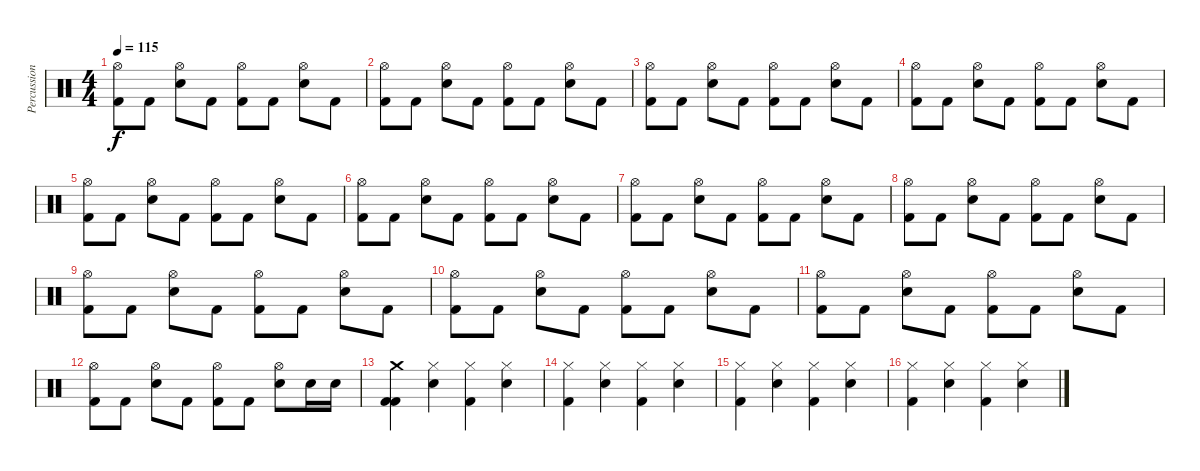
\track ("Percussions" "Percussion") {instrument percussion}
\staff {score}
\articulation defaults
\ts (4 4)
\tempo 115
\clef neutral
\ks c
("Hi-Hat (open)" "Kick (hit) 2").8{dy f} "Kick (hit) 2".8 ("Hi-Hat (open)" "Electric Snare (hit)").8 "Kick (hit) 2".8 ("Hi-Hat (open)" "Kick (hit) 2").8 "Kick (hit) 2".8 ("Hi-Hat (open)" "Electric Snare (hit)").8 "Kick (hit) 2".8 |
("Hi-Hat (open)" "Kick (hit) 2").8 "Kick (hit) 2".8 ("Hi-Hat (open)" "Electric Snare (hit)").8 "Kick (hit) 2".8 ("Hi-Hat (open)" "Kick (hit) 2").8 "Kick (hit) 2".8 ("Hi-Hat (open)" "Electric Snare (hit)").8 "Kick (hit) 2".8 |
("Hi-Hat (open)" "Kick (hit) 2").8 "Kick (hit) 2".8 ("Hi-Hat (open)" "Electric Snare (hit)").8 "Kick (hit) 2".8 ("Hi-Hat (open)" "Kick (hit) 2").8 "Kick (hit) 2".8 ("Hi-Hat (open)" "Electric Snare (hit)").8 "Kick (hit) 2".8 |
("Hi-Hat (open)" "Kick (hit) 2").8 "Kick (hit) 2".8 ("Hi-Hat (open)" "Electric Snare (hit)").8 "Kick (hit) 2".8 ("Hi-Hat (open)" "Kick (hit) 2").8 "Kick (hit) 2".8 ("Hi-Hat (open)" "Electric Snare (hit)").8 "Kick (hit) 2".8 |
("Hi-Hat (open)" "Kick (hit) 2").8 "Kick (hit) 2".8 ("Hi-Hat (open)" "Electric Snare (hit)").8 "Kick (hit) 2".8 ("Hi-Hat (open)" "Kick (hit) 2").8 "Kick (hit) 2".8 ("Hi-Hat (open)" "Electric Snare (hit)").8 "Kick (hit) 2".8 |
("Hi-Hat (open)" "Kick (hit) 2").8 "Kick (hit) 2".8 ("Hi-Hat (open)" "Electric Snare (hit)").8 "Kick (hit) 2".8 ("Hi-Hat (open)" "Kick (hit) 2").8 "Kick (hit) 2".8 ("Hi-Hat (open)" "Electric Snare (hit)").8 "Kick (hit) 2".8 |
("Hi-Hat (open)" "Kick (hit) 2").8 "Kick (hit) 2".8 ("Hi-Hat (open)" "Electric Snare (hit)").8 "Kick (hit) 2".8 ("Hi-Hat (open)" "Kick (hit) 2").8 "Kick (hit) 2".8 ("Hi-Hat (open)" "Electric Snare (hit)").8 "Kick (hit) 2".8 |
("Hi-Hat (open)" "Kick (hit) 2").8 "Kick (hit) 2".8 ("Hi-Hat (open)" "Electric Snare (hit)").8 "Kick (hit) 2".8 ("Hi-Hat (open)" "Kick (hit) 2").8 "Kick (hit) 2".8 ("Hi-Hat (open)" "Electric Snare (hit)").8 "Kick (hit) 2".8 |
("Hi-Hat (open)" "Kick (hit) 2").8 "Kick (hit) 2".8 ("Hi-Hat (open)" "Electric Snare (hit)").8 "Kick (hit) 2".8 ("Hi-Hat (open)" "Kick (hit) 2").8 "Kick (hit) 2".8 ("Hi-Hat (open)" "Electric Snare (hit)").8 "Kick (hit) 2".8 |
("Hi-Hat (open)" "Kick (hit) 2").8 "Kick (hit) 2".8 ("Hi-Hat (open)" "Electric Snare (hit)").8 "Kick (hit) 2".8 ("Hi-Hat (open)" "Kick (hit) 2").8 "Kick (hit) 2".8 ("Hi-Hat (open)" "Electric Snare (hit)").8 "Kick (hit) 2".8 |
("Hi-Hat (open)" "Kick (hit) 2").8 "Kick (hit) 2".8 ("Hi-Hat (open)" "Electric Snare (hit)").8 "Kick (hit) 2".8 ("Hi-Hat (open)" "Kick (hit) 2").8 "Kick (hit) 2".8 ("Hi-Hat (open)" "Electric Snare (hit)").8 "Kick (hit) 2".8 |
("Hi-Hat (open)" "Kick (hit) 2").8 "Kick (hit) 2".8 ("Hi-Hat (open)" "Electric Snare (hit)").8 "Kick (hit) 2".8 ("Hi-Hat (open)" "Kick (hit) 2").8 "Kick (hit) 2".8 ("Hi-Hat (open)" "Electric Snare (hit)").8 "Electric Snare (hit)".16 "Electric Snare (hit)".16 |
("Crash medium (hit)" "Kick (hit) 2" "Kick (hit) 2").4 ("Hi-Hat (closed)" "Electric Snare (hit)").4 ("Hi-Hat (closed)" "Kick (hit) 2").4 ("Hi-Hat (closed)" "Electric Snare (hit)").4 |
("Hi-Hat (closed)" "Kick (hit) 2").4 ("Hi-Hat (closed)" "Electric Snare (hit)").4 ("Hi-Hat (closed)" "Kick (hit) 2").4 ("Hi-Hat (closed)" "Electric Snare (hit)").4 |
("Hi-Hat (closed)" "Kick (hit) 2").4 ("Hi-Hat (closed)" "Electric Snare (hit)").4 ("Hi-Hat (closed)" "Kick (hit) 2").4 ("Hi-Hat (closed)" "Electric Snare (hit)").4 |
("Hi-Hat (closed)" "Kick (hit) 2").4 ("Hi-Hat (closed)" "Electric Snare (hit)").4 ("Hi-Hat (closed)" "Kick (hit) 2").4 ("Hi-Hat (closed)" "Electric Snare (hit)").4
